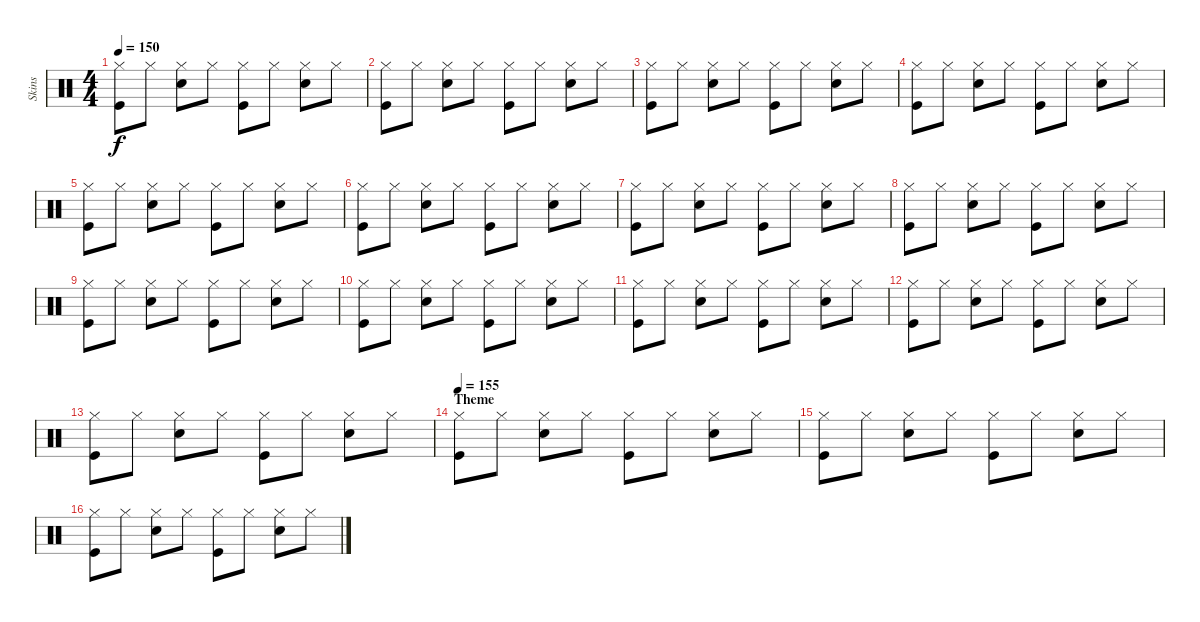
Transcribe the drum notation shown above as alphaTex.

\track ("Skins" "Skins") {instrument percussion}
\staff {score}
\articulation defaults
\ts (4 4)
\tempo 150
\clef neutral
\ks c
("Hi-Hat (closed)" "Kick (hit)").8{dy f} "Hi-Hat (closed)".8 ("Hi-Hat (closed)" "Snare (hit) 2").8 "Hi-Hat (closed)".8 ("Hi-Hat (closed)" "Kick (hit)").8 "Hi-Hat (closed)".8 ("Hi-Hat (closed)" "Snare (hit) 2").8 "Hi-Hat (closed)".8 |
("Hi-Hat (closed)" "Kick (hit)").8 "Hi-Hat (closed)".8 ("Hi-Hat (closed)" "Snare (hit) 2").8 "Hi-Hat (closed)".8 ("Hi-Hat (closed)" "Kick (hit)").8 "Hi-Hat (closed)".8 ("Hi-Hat (closed)" "Snare (hit) 2").8 "Hi-Hat (closed)".8 |
("Hi-Hat (closed)" "Kick (hit)").8 "Hi-Hat (closed)".8 ("Hi-Hat (closed)" "Snare (hit) 2").8 "Hi-Hat (closed)".8 ("Hi-Hat (closed)" "Kick (hit)").8 "Hi-Hat (closed)".8 ("Hi-Hat (closed)" "Snare (hit) 2").8 "Hi-Hat (closed)".8 |
("Hi-Hat (closed)" "Kick (hit)").8 "Hi-Hat (closed)".8 ("Hi-Hat (closed)" "Snare (hit) 2").8 "Hi-Hat (closed)".8 ("Hi-Hat (closed)" "Kick (hit)").8 "Hi-Hat (closed)".8 ("Hi-Hat (closed)" "Snare (hit) 2").8 "Hi-Hat (closed)".8 |
("Hi-Hat (closed)" "Kick (hit)").8 "Hi-Hat (closed)".8 ("Hi-Hat (closed)" "Snare (hit) 2").8 "Hi-Hat (closed)".8 ("Hi-Hat (closed)" "Kick (hit)").8 "Hi-Hat (closed)".8 ("Hi-Hat (closed)" "Snare (hit) 2").8 "Hi-Hat (closed)".8 |
("Hi-Hat (closed)" "Kick (hit)").8 "Hi-Hat (closed)".8 ("Hi-Hat (closed)" "Snare (hit) 2").8 "Hi-Hat (closed)".8 ("Hi-Hat (closed)" "Kick (hit)").8 "Hi-Hat (closed)".8 ("Hi-Hat (closed)" "Snare (hit) 2").8 "Hi-Hat (closed)".8 |
("Hi-Hat (closed)" "Kick (hit)").8 "Hi-Hat (closed)".8 ("Hi-Hat (closed)" "Snare (hit) 2").8 "Hi-Hat (closed)".8 ("Hi-Hat (closed)" "Kick (hit)").8 "Hi-Hat (closed)".8 ("Hi-Hat (closed)" "Snare (hit) 2").8 "Hi-Hat (closed)".8 |
("Hi-Hat (closed)" "Kick (hit)").8 "Hi-Hat (closed)".8 ("Hi-Hat (closed)" "Snare (hit) 2").8 "Hi-Hat (closed)".8 ("Hi-Hat (closed)" "Kick (hit)").8 "Hi-Hat (closed)".8 ("Hi-Hat (closed)" "Snare (hit) 2").8 "Hi-Hat (closed)".8 |
("Hi-Hat (closed)" "Kick (hit)").8 "Hi-Hat (closed)".8 ("Hi-Hat (closed)" "Snare (hit) 2").8 "Hi-Hat (closed)".8 ("Hi-Hat (closed)" "Kick (hit)").8 "Hi-Hat (closed)".8 ("Hi-Hat (closed)" "Snare (hit) 2").8 "Hi-Hat (closed)".8 |
("Hi-Hat (closed)" "Kick (hit)").8 "Hi-Hat (closed)".8 ("Hi-Hat (closed)" "Snare (hit) 2").8 "Hi-Hat (closed)".8 ("Hi-Hat (closed)" "Kick (hit)").8 "Hi-Hat (closed)".8 ("Hi-Hat (closed)" "Snare (hit) 2").8 "Hi-Hat (closed)".8 |
("Hi-Hat (closed)" "Kick (hit)").8 "Hi-Hat (closed)".8 ("Hi-Hat (closed)" "Snare (hit) 2").8 "Hi-Hat (closed)".8 ("Hi-Hat (closed)" "Kick (hit)").8 "Hi-Hat (closed)".8 ("Hi-Hat (closed)" "Snare (hit) 2").8 "Hi-Hat (closed)".8 |
("Hi-Hat (closed)" "Kick (hit)").8 "Hi-Hat (closed)".8 ("Hi-Hat (closed)" "Snare (hit) 2").8 "Hi-Hat (closed)".8 ("Hi-Hat (closed)" "Kick (hit)").8 "Hi-Hat (closed)".8 ("Hi-Hat (closed)" "Snare (hit) 2").8 "Hi-Hat (closed)".8 |
("Hi-Hat (closed)" "Kick (hit)").8 "Hi-Hat (closed)".8 ("Hi-Hat (closed)" "Snare (hit) 2").8 "Hi-Hat (closed)".8 ("Hi-Hat (closed)" "Kick (hit)").8 "Hi-Hat (closed)".8 ("Hi-Hat (closed)" "Snare (hit) 2").8 "Hi-Hat (closed)".8 |
\section ("" "Theme")
\tempo 155
("Hi-Hat (closed)" "Kick (hit)").8 "Hi-Hat (closed)".8 ("Hi-Hat (closed)" "Snare (hit) 2").8 "Hi-Hat (closed)".8 ("Hi-Hat (closed)" "Kick (hit)").8 "Hi-Hat (closed)".8 ("Hi-Hat (closed)" "Snare (hit) 2").8 "Hi-Hat (closed)".8 |
("Hi-Hat (closed)" "Kick (hit)").8 "Hi-Hat (closed)".8 ("Hi-Hat (closed)" "Snare (hit) 2").8 "Hi-Hat (closed)".8 ("Hi-Hat (closed)" "Kick (hit)").8 "Hi-Hat (closed)".8 ("Hi-Hat (closed)" "Snare (hit) 2").8 "Hi-Hat (closed)".8 |
("Hi-Hat (closed)" "Kick (hit)").8 "Hi-Hat (closed)".8 ("Hi-Hat (closed)" "Snare (hit) 2").8 "Hi-Hat (closed)".8 ("Hi-Hat (closed)" "Kick (hit)").8 "Hi-Hat (closed)".8 ("Hi-Hat (closed)" "Snare (hit) 2").8 "Hi-Hat (closed)".8
